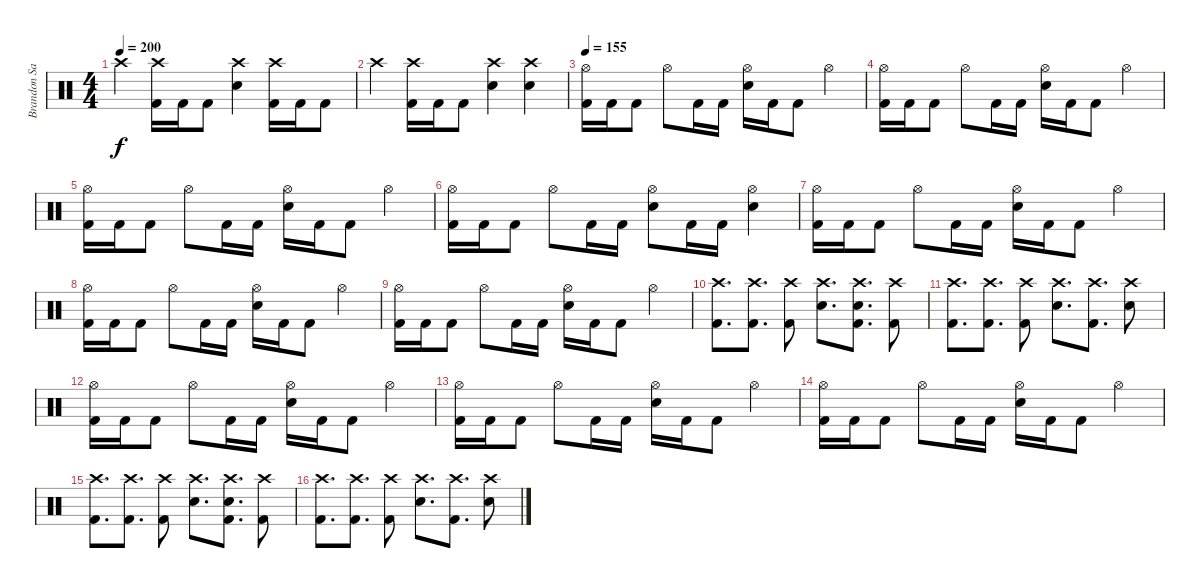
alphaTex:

\track ("Brandon Saller" "Brandon Sa") {instrument percussion}
\staff {score}
\articulation defaults
\ts (4 4)
\tempo 200
\clef neutral
\ks c "Crash high (hit)".4{dy f}
("Crash high (hit)" "Kick (hit) 2").16 "Kick (hit) 2".16 "Kick (hit) 2".8 ("Crash high (hit)" "Electric Snare (hit)").4 ("Crash high (hit)" "Kick (hit) 2").16 "Kick (hit) 2".16 "Kick (hit) 2".8 |
"Crash high (hit)".4 ("Crash high (hit)" "Kick (hit) 2").16 "Kick (hit) 2".16 "Kick (hit) 2".8 ("Crash high (hit)" "Electric Snare (hit)").4 ("Crash high (hit)" "Electric Snare (hit)").4 |
\tempo 155
("Hi-Hat (open)" "Kick (hit) 2").16 "Kick (hit) 2".16 "Kick (hit) 2".8 "Hi-Hat (open)".8 "Kick (hit) 2".16 "Kick (hit) 2".16 ("Hi-Hat (open)" "Electric Snare (hit)").16 "Kick (hit) 2".16 "Kick (hit) 2".8 "Hi-Hat (open)".4 |
("Hi-Hat (open)" "Kick (hit) 2").16 "Kick (hit) 2".16 "Kick (hit) 2".8 "Hi-Hat (open)".8 "Kick (hit) 2".16 "Kick (hit) 2".16 ("Hi-Hat (open)" "Electric Snare (hit)").16 "Kick (hit) 2".16 "Kick (hit) 2".8 "Hi-Hat (open)".4 |
("Hi-Hat (open)" "Kick (hit) 2").16 "Kick (hit) 2".16 "Kick (hit) 2".8 "Hi-Hat (open)".8 "Kick (hit) 2".16 "Kick (hit) 2".16 ("Hi-Hat (open)" "Electric Snare (hit)").16 "Kick (hit) 2".16 "Kick (hit) 2".8 "Hi-Hat (open)".4 |
("Hi-Hat (open)" "Kick (hit) 2").16 "Kick (hit) 2".16 "Kick (hit) 2".8 "Hi-Hat (open)".8 "Kick (hit) 2".16 "Kick (hit) 2".16 ("Hi-Hat (open)" "Electric Snare (hit)").8 "Kick (hit) 2".16 "Kick (hit) 2".16 ("Hi-Hat (open)" "Electric Snare (hit)").4 |
("Hi-Hat (open)" "Kick (hit) 2").16 "Kick (hit) 2".16 "Kick (hit) 2".8 "Hi-Hat (open)".8 "Kick (hit) 2".16 "Kick (hit) 2".16 ("Hi-Hat (open)" "Electric Snare (hit)").16 "Kick (hit) 2".16 "Kick (hit) 2".8 "Hi-Hat (open)".4 |
("Hi-Hat (open)" "Kick (hit) 2").16 "Kick (hit) 2".16 "Kick (hit) 2".8 "Hi-Hat (open)".8 "Kick (hit) 2".16 "Kick (hit) 2".16 ("Hi-Hat (open)" "Electric Snare (hit)").16 "Kick (hit) 2".16 "Kick (hit) 2".8 "Hi-Hat (open)".4 |
("Hi-Hat (open)" "Kick (hit) 2").16 "Kick (hit) 2".16 "Kick (hit) 2".8 "Hi-Hat (open)".8 "Kick (hit) 2".16 "Kick (hit) 2".16 ("Hi-Hat (open)" "Electric Snare (hit)").16 "Kick (hit) 2".16 "Kick (hit) 2".8 "Hi-Hat (open)".4 |
("Crash high (hit)" "Kick (hit) 2").8{d} ("Crash high (hit)" "Kick (hit) 2").8{d} ("Crash high (hit)" "Kick (hit) 2").8 ("Crash high (hit)" "Electric Snare (hit)").8{d} ("Crash high (hit)" "Electric Snare (hit)" "Kick (hit) 2").8{d} ("Crash high (hit)" "Kick (hit) 2").8 |
("Crash high (hit)" "Kick (hit) 2").8{d} ("Crash high (hit)" "Kick (hit) 2").8{d} ("Crash high (hit)" "Kick (hit) 2").8 ("Crash high (hit)" "Electric Snare (hit)").8{d} ("Crash high (hit)" "Kick (hit) 2").8{d} ("Crash high (hit)" "Electric Snare (hit)").8 |
("Hi-Hat (open)" "Kick (hit) 2").16 "Kick (hit) 2".16 "Kick (hit) 2".8 "Hi-Hat (open)".8 "Kick (hit) 2".16 "Kick (hit) 2".16 ("Hi-Hat (open)" "Electric Snare (hit)").16 "Kick (hit) 2".16 "Kick (hit) 2".8 "Hi-Hat (open)".4 |
("Hi-Hat (open)" "Kick (hit) 2").16 "Kick (hit) 2".16 "Kick (hit) 2".8 "Hi-Hat (open)".8 "Kick (hit) 2".16 "Kick (hit) 2".16 ("Hi-Hat (open)" "Electric Snare (hit)").16 "Kick (hit) 2".16 "Kick (hit) 2".8 "Hi-Hat (open)".4 |
("Hi-Hat (open)" "Kick (hit) 2").16 "Kick (hit) 2".16 "Kick (hit) 2".8 "Hi-Hat (open)".8 "Kick (hit) 2".16 "Kick (hit) 2".16 ("Hi-Hat (open)" "Electric Snare (hit)").16 "Kick (hit) 2".16 "Kick (hit) 2".8 "Hi-Hat (open)".4 |
("Crash high (hit)" "Kick (hit) 2").8{d} ("Crash high (hit)" "Kick (hit) 2").8{d} ("Crash high (hit)" "Kick (hit) 2").8 ("Crash high (hit)" "Electric Snare (hit)").8{d} ("Crash high (hit)" "Electric Snare (hit)" "Kick (hit) 2").8{d} ("Crash high (hit)" "Kick (hit) 2").8 |
("Crash high (hit)" "Kick (hit) 2").8{d} ("Crash high (hit)" "Kick (hit) 2").8{d} ("Crash high (hit)" "Kick (hit) 2").8 ("Crash high (hit)" "Electric Snare (hit)").8{d} ("Crash high (hit)" "Kick (hit) 2").8{d} ("Crash high (hit)" "Electric Snare (hit)").8
